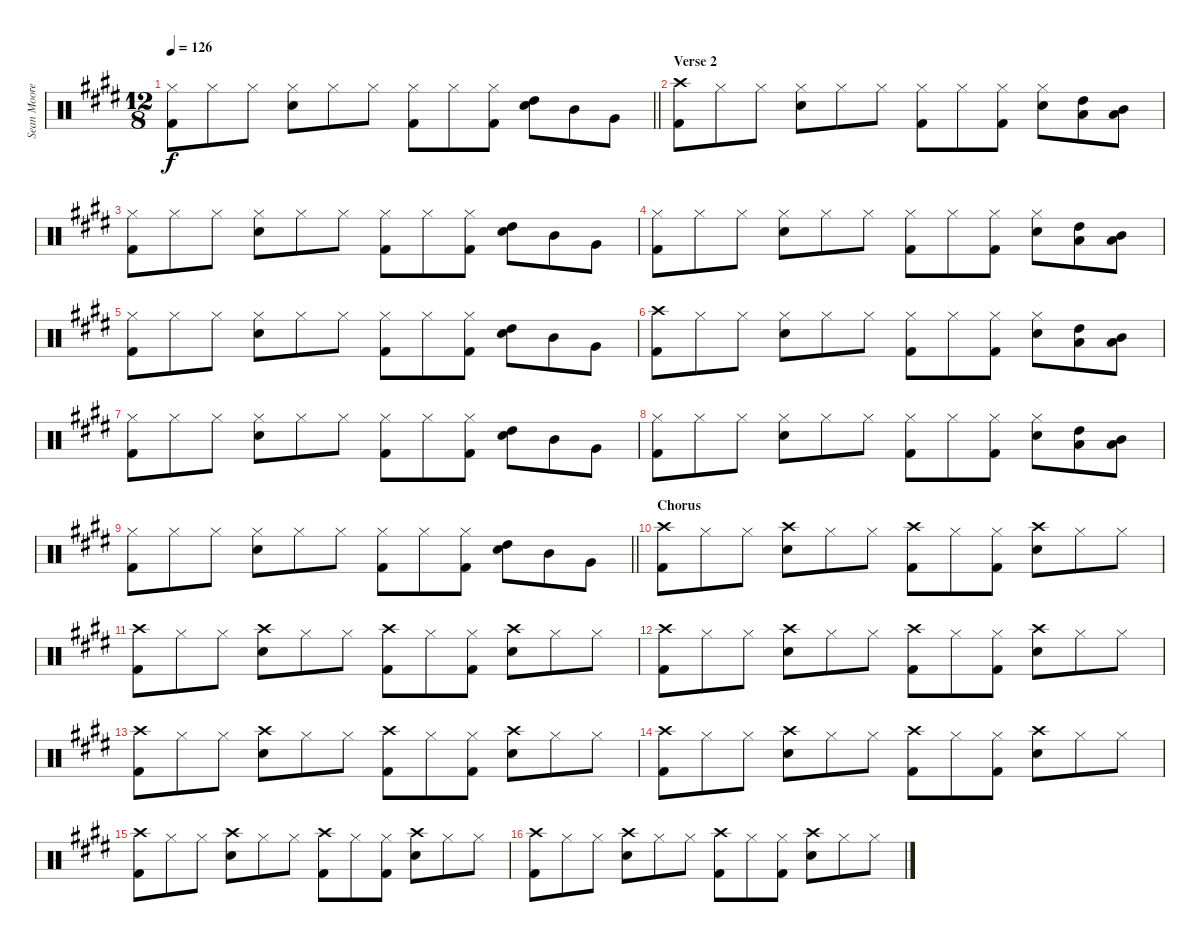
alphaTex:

\track ("Sean Moore (Drums)" "Sean Moore") {instrument percussion}
\staff {score}
\articulation defaults
\ts (12 8)
\tempo 126
\clef neutral
\barLineRight lightlight
\ks e
("Hi-Hat (closed)" "Kick (hit) 2").8{dy f} "Hi-Hat (closed)".8 "Hi-Hat (closed)".8 ("Hi-Hat (closed)" "Electric Snare (hit)").8 "Hi-Hat (closed)".8 "Hi-Hat (closed)".8 ("Hi-Hat (closed)" "Kick (hit) 2").8 "Hi-Hat (closed)".8 ("Hi-Hat (closed)" "Kick (hit) 2").8 ("Electric Snare (hit)" "High Tom (hit)").8 "Mid Tom (hit)".8 "Very Low Tom (hit)".8 |
\section ("" "Verse 2")
("Crash high (hit)" "Kick (hit) 2").8 "Hi-Hat (closed)".8 "Hi-Hat (closed)".8 ("Hi-Hat (closed)" "Electric Snare (hit)").8 "Hi-Hat (closed)".8 "Hi-Hat (closed)".8 ("Hi-Hat (closed)" "Kick (hit) 2").8 "Hi-Hat (closed)".8 ("Hi-Hat (closed)" "Kick (hit) 2").8 ("Hi-Hat (closed)" "Electric Snare (hit)").8 ("High Tom (hit)" "Low Floor Tom (hit)").8 ("Mid Tom (hit)" "Low Floor Tom (hit)").8 |
("Hi-Hat (closed)" "Kick (hit) 2").8 "Hi-Hat (closed)".8 "Hi-Hat (closed)".8 ("Hi-Hat (closed)" "Electric Snare (hit)").8 "Hi-Hat (closed)".8 "Hi-Hat (closed)".8 ("Hi-Hat (closed)" "Kick (hit) 2").8 "Hi-Hat (closed)".8 ("Hi-Hat (closed)" "Kick (hit) 2").8 ("Electric Snare (hit)" "High Tom (hit)").8 "Mid Tom (hit)".8 "Very Low Tom (hit)".8 |
("Hi-Hat (closed)" "Kick (hit) 2").8 "Hi-Hat (closed)".8 "Hi-Hat (closed)".8 ("Hi-Hat (closed)" "Electric Snare (hit)").8 "Hi-Hat (closed)".8 "Hi-Hat (closed)".8 ("Hi-Hat (closed)" "Kick (hit) 2").8 "Hi-Hat (closed)".8 ("Hi-Hat (closed)" "Kick (hit) 2").8 ("Hi-Hat (closed)" "Electric Snare (hit)").8 ("High Tom (hit)" "Low Floor Tom (hit)").8 ("Mid Tom (hit)" "Low Floor Tom (hit)").8 |
("Hi-Hat (closed)" "Kick (hit) 2").8 "Hi-Hat (closed)".8 "Hi-Hat (closed)".8 ("Hi-Hat (closed)" "Electric Snare (hit)").8 "Hi-Hat (closed)".8 "Hi-Hat (closed)".8 ("Hi-Hat (closed)" "Kick (hit) 2").8 "Hi-Hat (closed)".8 ("Hi-Hat (closed)" "Kick (hit) 2").8 ("Electric Snare (hit)" "High Tom (hit)").8 "Mid Tom (hit)".8 "Very Low Tom (hit)".8 |
("Crash high (hit)" "Kick (hit) 2").8 "Hi-Hat (closed)".8 "Hi-Hat (closed)".8 ("Hi-Hat (closed)" "Electric Snare (hit)").8 "Hi-Hat (closed)".8 "Hi-Hat (closed)".8 ("Hi-Hat (closed)" "Kick (hit) 2").8 "Hi-Hat (closed)".8 ("Hi-Hat (closed)" "Kick (hit) 2").8 ("Hi-Hat (closed)" "Electric Snare (hit)").8 ("High Tom (hit)" "Low Floor Tom (hit)").8 ("Mid Tom (hit)" "Low Floor Tom (hit)").8 |
("Hi-Hat (closed)" "Kick (hit) 2").8 "Hi-Hat (closed)".8 "Hi-Hat (closed)".8 ("Hi-Hat (closed)" "Electric Snare (hit)").8 "Hi-Hat (closed)".8 "Hi-Hat (closed)".8 ("Hi-Hat (closed)" "Kick (hit) 2").8 "Hi-Hat (closed)".8 ("Hi-Hat (closed)" "Kick (hit) 2").8 ("Electric Snare (hit)" "High Tom (hit)").8 "Mid Tom (hit)".8 "Very Low Tom (hit)".8 |
("Hi-Hat (closed)" "Kick (hit) 2").8 "Hi-Hat (closed)".8 "Hi-Hat (closed)".8 ("Hi-Hat (closed)" "Electric Snare (hit)").8 "Hi-Hat (closed)".8 "Hi-Hat (closed)".8 ("Hi-Hat (closed)" "Kick (hit) 2").8 "Hi-Hat (closed)".8 ("Hi-Hat (closed)" "Kick (hit) 2").8 ("Hi-Hat (closed)" "Electric Snare (hit)").8 ("High Tom (hit)" "Low Floor Tom (hit)").8 ("Mid Tom (hit)" "Low Floor Tom (hit)").8 |
\barLineRight lightlight
("Hi-Hat (closed)" "Kick (hit) 2").8 "Hi-Hat (closed)".8 "Hi-Hat (closed)".8 ("Hi-Hat (closed)" "Electric Snare (hit)").8 "Hi-Hat (closed)".8 "Hi-Hat (closed)".8 ("Hi-Hat (closed)" "Kick (hit) 2").8 "Hi-Hat (closed)".8 ("Hi-Hat (closed)" "Kick (hit) 2").8 ("Electric Snare (hit)" "High Tom (hit)").8 "Mid Tom (hit)".8 "Very Low Tom (hit)".8 |
\section ("" "Chorus")
("Crash high (hit)" "Kick (hit) 2").8 "Hi-Hat (closed)".8 "Hi-Hat (closed)".8 ("Crash high (hit)" "Electric Snare (hit)").8 "Hi-Hat (closed)".8 "Hi-Hat (closed)".8 ("Crash high (hit)" "Kick (hit) 2").8 "Hi-Hat (closed)".8 ("Hi-Hat (closed)" "Kick (hit) 2").8 ("Crash high (hit)" "Electric Snare (hit)").8 "Hi-Hat (closed)".8 "Hi-Hat (closed)".8 |
("Crash high (hit)" "Kick (hit) 2").8 "Hi-Hat (closed)".8 "Hi-Hat (closed)".8 ("Crash high (hit)" "Electric Snare (hit)").8 "Hi-Hat (closed)".8 "Hi-Hat (closed)".8 ("Crash high (hit)" "Kick (hit) 2").8 "Hi-Hat (closed)".8 ("Hi-Hat (closed)" "Kick (hit) 2").8 ("Crash high (hit)" "Electric Snare (hit)").8 "Hi-Hat (closed)".8 "Hi-Hat (closed)".8 |
("Crash high (hit)" "Kick (hit) 2").8 "Hi-Hat (closed)".8 "Hi-Hat (closed)".8 ("Crash high (hit)" "Electric Snare (hit)").8 "Hi-Hat (closed)".8 "Hi-Hat (closed)".8 ("Crash high (hit)" "Kick (hit) 2").8 "Hi-Hat (closed)".8 ("Hi-Hat (closed)" "Kick (hit) 2").8 ("Crash high (hit)" "Electric Snare (hit)").8 "Hi-Hat (closed)".8 "Hi-Hat (closed)".8 |
("Crash high (hit)" "Kick (hit) 2").8 "Hi-Hat (closed)".8 "Hi-Hat (closed)".8 ("Crash high (hit)" "Electric Snare (hit)").8 "Hi-Hat (closed)".8 "Hi-Hat (closed)".8 ("Crash high (hit)" "Kick (hit) 2").8 "Hi-Hat (closed)".8 ("Hi-Hat (closed)" "Kick (hit) 2").8 ("Crash high (hit)" "Electric Snare (hit)").8 "Hi-Hat (closed)".8 "Hi-Hat (closed)".8 |
("Crash high (hit)" "Kick (hit) 2").8 "Hi-Hat (closed)".8 "Hi-Hat (closed)".8 ("Crash high (hit)" "Electric Snare (hit)").8 "Hi-Hat (closed)".8 "Hi-Hat (closed)".8 ("Crash high (hit)" "Kick (hit) 2").8 "Hi-Hat (closed)".8 ("Hi-Hat (closed)" "Kick (hit) 2").8 ("Crash high (hit)" "Electric Snare (hit)").8 "Hi-Hat (closed)".8 "Hi-Hat (closed)".8 |
("Crash high (hit)" "Kick (hit) 2").8 "Hi-Hat (closed)".8 "Hi-Hat (closed)".8 ("Crash high (hit)" "Electric Snare (hit)").8 "Hi-Hat (closed)".8 "Hi-Hat (closed)".8 ("Crash high (hit)" "Kick (hit) 2").8 "Hi-Hat (closed)".8 ("Hi-Hat (closed)" "Kick (hit) 2").8 ("Crash high (hit)" "Electric Snare (hit)").8 "Hi-Hat (closed)".8 "Hi-Hat (closed)".8 |
("Crash high (hit)" "Kick (hit) 2").8 "Hi-Hat (closed)".8 "Hi-Hat (closed)".8 ("Crash high (hit)" "Electric Snare (hit)").8 "Hi-Hat (closed)".8 "Hi-Hat (closed)".8 ("Crash high (hit)" "Kick (hit) 2").8 "Hi-Hat (closed)".8 ("Hi-Hat (closed)" "Kick (hit) 2").8 ("Crash high (hit)" "Electric Snare (hit)").8 "Hi-Hat (closed)".8 "Hi-Hat (closed)".8
